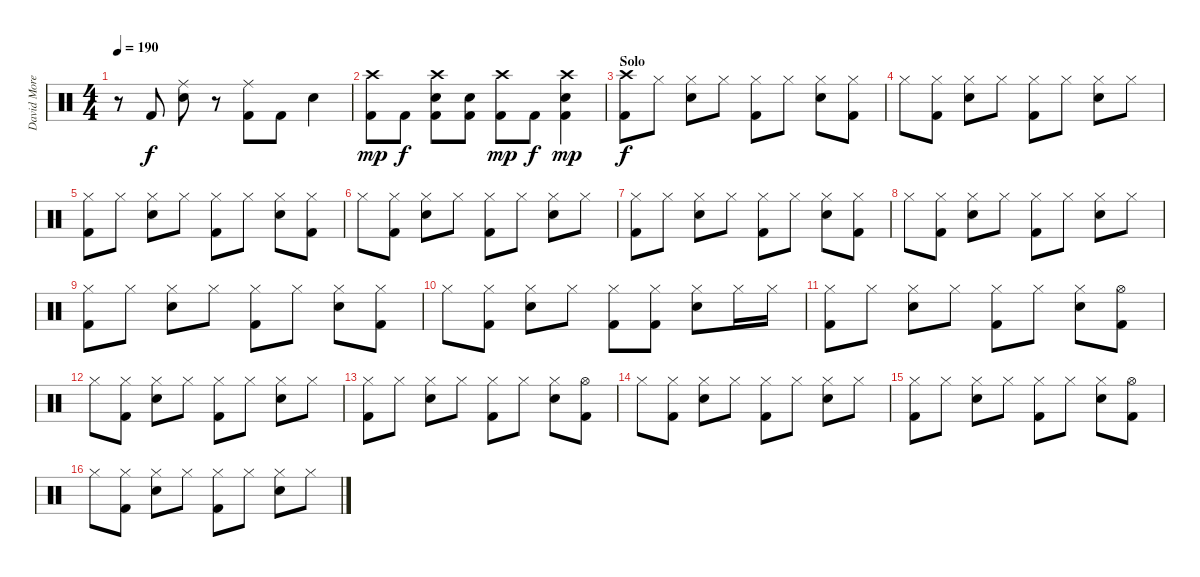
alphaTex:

\track ("David Moreno" "David More") {instrument percussion}
\staff {score}
\articulation defaults
\ts (4 4)
\tempo 190
\clef neutral
\ks c
r.8{dy f} "Kick (hit) 2".8 ("Ride (middle)" "Snare (hit) 2").8 r.8 ("Ride (middle)" "Kick (hit) 2").8 "Kick (hit) 2".8 "Snare (hit) 2".4 |
("Crash high (hit)" "Kick (hit) 2").8{dy mp} "Kick (hit) 2".8{dy f} ("Crash high (hit)" "Snare (hit) 2" "Kick (hit) 2").8 ("Snare (hit) 2" "Kick (hit) 2").8 ("Crash high (hit)" "Kick (hit) 2").8{dy mp} "Kick (hit) 2".8{dy f} ("Crash high (hit)" "Snare (hit) 2" "Kick (hit) 2").4{dy mp} |
\section ("" "Solo")
("Crash high (hit)" "Kick (hit) 2").8{dy f} "Hi-Hat (closed)".8 ("Hi-Hat (closed)" "Snare (hit) 2").8 "Hi-Hat (closed)".8 ("Hi-Hat (closed)" "Kick (hit) 2").8 "Hi-Hat (closed)".8 ("Hi-Hat (closed)" "Snare (hit) 2").8 ("Hi-Hat (closed)" "Kick (hit) 2").8 |
"Hi-Hat (closed)".8 ("Hi-Hat (closed)" "Kick (hit) 2").8 ("Hi-Hat (closed)" "Snare (hit) 2").8 "Hi-Hat (closed)".8 ("Hi-Hat (closed)" "Kick (hit) 2").8 "Hi-Hat (closed)".8 ("Hi-Hat (closed)" "Snare (hit) 2").8 "Hi-Hat (closed)".8 |
("Hi-Hat (closed)" "Kick (hit) 2").8 "Hi-Hat (closed)".8 ("Hi-Hat (closed)" "Snare (hit) 2").8 "Hi-Hat (closed)".8 ("Hi-Hat (closed)" "Kick (hit) 2").8 "Hi-Hat (closed)".8 ("Hi-Hat (closed)" "Snare (hit) 2").8 ("Hi-Hat (closed)" "Kick (hit) 2").8 |
"Hi-Hat (closed)".8 ("Hi-Hat (closed)" "Kick (hit) 2").8 ("Hi-Hat (closed)" "Snare (hit) 2").8 "Hi-Hat (closed)".8 ("Hi-Hat (closed)" "Kick (hit) 2").8 "Hi-Hat (closed)".8 ("Hi-Hat (closed)" "Snare (hit) 2").8 "Hi-Hat (closed)".8 |
("Hi-Hat (closed)" "Kick (hit) 2").8 "Hi-Hat (closed)".8 ("Hi-Hat (closed)" "Snare (hit) 2").8 "Hi-Hat (closed)".8 ("Hi-Hat (closed)" "Kick (hit) 2").8 "Hi-Hat (closed)".8 ("Hi-Hat (closed)" "Snare (hit) 2").8 ("Hi-Hat (closed)" "Kick (hit) 2").8 |
"Hi-Hat (closed)".8 ("Hi-Hat (closed)" "Kick (hit) 2").8 ("Hi-Hat (closed)" "Snare (hit) 2").8 "Hi-Hat (closed)".8 ("Hi-Hat (closed)" "Kick (hit) 2").8 "Hi-Hat (closed)".8 ("Hi-Hat (closed)" "Snare (hit) 2").8 "Hi-Hat (closed)".8 |
("Hi-Hat (closed)" "Kick (hit) 2").8 "Hi-Hat (closed)".8 ("Hi-Hat (closed)" "Snare (hit) 2").8 "Hi-Hat (closed)".8 ("Hi-Hat (closed)" "Kick (hit) 2").8 "Hi-Hat (closed)".8 ("Hi-Hat (closed)" "Snare (hit) 2").8 ("Hi-Hat (closed)" "Kick (hit) 2").8 |
"Hi-Hat (closed)".8 ("Hi-Hat (closed)" "Kick (hit) 2").8 ("Hi-Hat (closed)" "Snare (hit) 2").8 "Hi-Hat (closed)".8 ("Hi-Hat (closed)" "Kick (hit) 2").8 ("Hi-Hat (closed)" "Kick (hit) 2").8 ("Hi-Hat (closed)" "Snare (hit) 2").8 "Hi-Hat (closed)".16 "Hi-Hat (closed)".16 |
("Hi-Hat (closed)" "Kick (hit) 2").8 "Hi-Hat (closed)".8 ("Hi-Hat (closed)" "Snare (hit) 2").8 "Hi-Hat (closed)".8 ("Hi-Hat (closed)" "Kick (hit) 2").8 "Hi-Hat (closed)".8 ("Hi-Hat (closed)" "Snare (hit) 2").8 ("Hi-Hat (open)" "Kick (hit) 2").8 |
"Hi-Hat (closed)".8 ("Hi-Hat (closed)" "Kick (hit) 2").8 ("Hi-Hat (closed)" "Snare (hit) 2").8 "Hi-Hat (closed)".8 ("Hi-Hat (closed)" "Kick (hit) 2").8 "Hi-Hat (closed)".8 ("Hi-Hat (closed)" "Snare (hit) 2").8 "Hi-Hat (closed)".8 |
("Hi-Hat (closed)" "Kick (hit) 2").8 "Hi-Hat (closed)".8 ("Hi-Hat (closed)" "Snare (hit) 2").8 "Hi-Hat (closed)".8 ("Hi-Hat (closed)" "Kick (hit) 2").8 "Hi-Hat (closed)".8 ("Hi-Hat (closed)" "Snare (hit) 2").8 ("Hi-Hat (open)" "Kick (hit) 2").8 |
"Hi-Hat (closed)".8 ("Hi-Hat (closed)" "Kick (hit) 2").8 ("Hi-Hat (closed)" "Snare (hit) 2").8 "Hi-Hat (closed)".8 ("Hi-Hat (closed)" "Kick (hit) 2").8 "Hi-Hat (closed)".8 ("Hi-Hat (closed)" "Snare (hit) 2").8 "Hi-Hat (closed)".8 |
("Hi-Hat (closed)" "Kick (hit) 2").8 "Hi-Hat (closed)".8 ("Hi-Hat (closed)" "Snare (hit) 2").8 "Hi-Hat (closed)".8 ("Hi-Hat (closed)" "Kick (hit) 2").8 "Hi-Hat (closed)".8 ("Hi-Hat (closed)" "Snare (hit) 2").8 ("Hi-Hat (open)" "Kick (hit) 2").8 |
"Hi-Hat (closed)".8 ("Hi-Hat (closed)" "Kick (hit) 2").8 ("Hi-Hat (closed)" "Snare (hit) 2").8 "Hi-Hat (closed)".8 ("Hi-Hat (closed)" "Kick (hit) 2").8 "Hi-Hat (closed)".8 ("Hi-Hat (closed)" "Snare (hit) 2").8 "Hi-Hat (closed)".8
